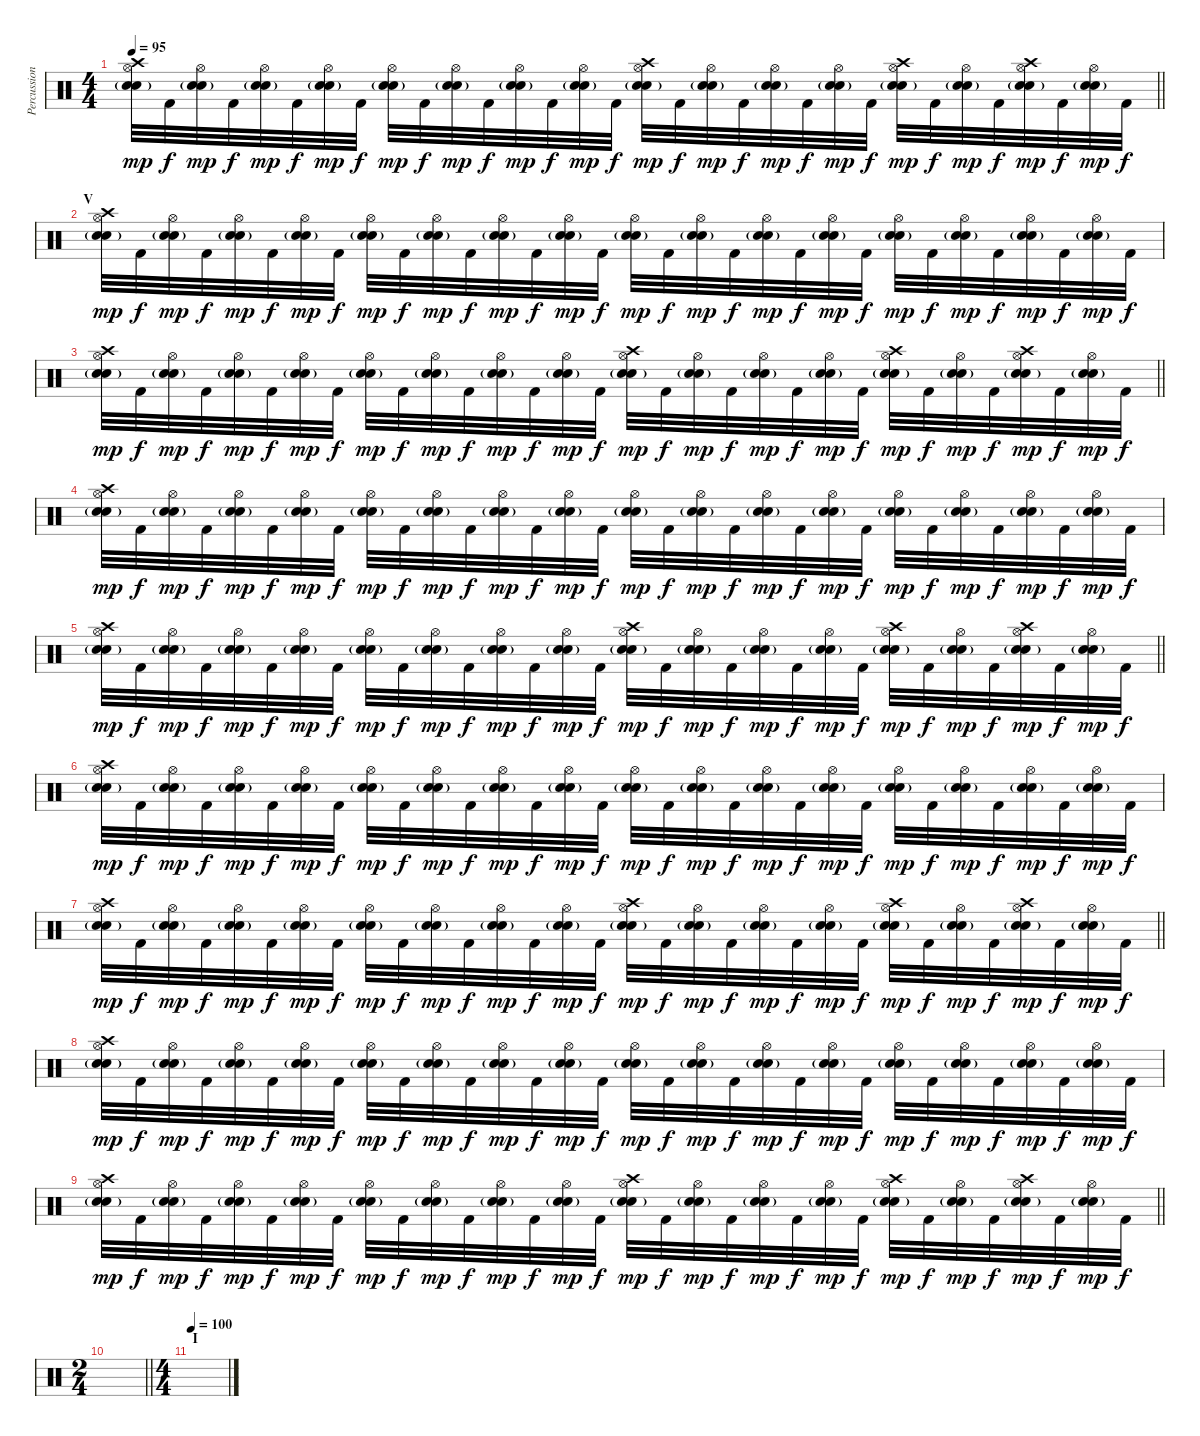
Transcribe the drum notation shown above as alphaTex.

\track ("Percussion" "Percussion") {instrument percussion}
\staff {score}
\articulation defaults
\ts (4 4)
\tempo 95
\clef neutral
\barLineRight lightlight
\ks c
("Crash high (hit)" "Electric Snare (hit)" "Snare (hit) 2"{g} "Hi-Hat (open)").32{dy mp} "Kick (hit) 2".32{dy f} ("Electric Snare (hit)" "Snare (hit) 2"{g} "Hi-Hat (open)").32{dy mp} "Kick (hit) 2".32{dy f} ("Electric Snare (hit)" "Snare (hit) 2"{g} "Hi-Hat (open)").32{dy mp} "Kick (hit) 2".32{dy f} ("Electric Snare (hit)" "Snare (hit) 2"{g} "Hi-Hat (open)").32{dy mp} "Kick (hit) 2".32{dy f} ("Electric Snare (hit)" "Snare (hit) 2"{g} "Hi-Hat (open)").32{dy mp} "Kick (hit) 2".32{dy f} ("Electric Snare (hit)" "Snare (hit) 2"{g} "Hi-Hat (open)").32{dy mp} "Kick (hit) 2".32{dy f} ("Electric Snare (hit)" "Snare (hit) 2"{g} "Hi-Hat (open)").32{dy mp} "Kick (hit) 2".32{dy f} ("Electric Snare (hit)" "Snare (hit) 2"{g} "Hi-Hat (open)").32{dy mp} "Kick (hit) 2".32{dy f} ("Crash high (hit)" "Electric Snare (hit)" "Snare (hit) 2"{g} "Hi-Hat (open)").32{dy mp} "Kick (hit) 2".32{dy f} ("Electric Snare (hit)" "Snare (hit) 2"{g} "Hi-Hat (open)").32{dy mp} "Kick (hit) 2".32{dy f} ("Electric Snare (hit)" "Snare (hit) 2"{g} "Hi-Hat (open)").32{dy mp} "Kick (hit) 2".32{dy f} ("Electric Snare (hit)" "Snare (hit) 2"{g} "Hi-Hat (open)").32{dy mp} "Kick (hit) 2".32{dy f} ("Crash high (hit)" "Electric Snare (hit)" "Snare (hit) 2"{g} "Hi-Hat (open)").32{dy mp} "Kick (hit) 2".32{dy f} ("Electric Snare (hit)" "Snare (hit) 2"{g} "Hi-Hat (open)").32{dy mp} "Kick (hit) 2".32{dy f} ("Crash high (hit)" "Electric Snare (hit)" "Snare (hit) 2"{g} "Hi-Hat (open)").32{dy mp} "Kick (hit) 2".32{dy f} ("Electric Snare (hit)" "Snare (hit) 2"{g} "Hi-Hat (open)").32{dy mp} "Kick (hit) 2".32{dy f} |
\section ("" "V")
("Crash high (hit)" "Electric Snare (hit)" "Snare (hit) 2"{g} "Hi-Hat (open)").32{dy mp} "Kick (hit) 2".32{dy f} ("Electric Snare (hit)" "Snare (hit) 2"{g} "Hi-Hat (open)").32{dy mp} "Kick (hit) 2".32{dy f} ("Electric Snare (hit)" "Snare (hit) 2"{g} "Hi-Hat (open)").32{dy mp} "Kick (hit) 2".32{dy f} ("Electric Snare (hit)" "Snare (hit) 2"{g} "Hi-Hat (open)").32{dy mp} "Kick (hit) 2".32{dy f} ("Electric Snare (hit)" "Snare (hit) 2"{g} "Hi-Hat (open)").32{dy mp} "Kick (hit) 2".32{dy f} ("Electric Snare (hit)" "Snare (hit) 2"{g} "Hi-Hat (open)").32{dy mp} "Kick (hit) 2".32{dy f} ("Electric Snare (hit)" "Snare (hit) 2"{g} "Hi-Hat (open)").32{dy mp} "Kick (hit) 2".32{dy f} ("Electric Snare (hit)" "Snare (hit) 2"{g} "Hi-Hat (open)").32{dy mp} "Kick (hit) 2".32{dy f} ("Electric Snare (hit)" "Snare (hit) 2"{g} "Hi-Hat (open)").32{dy mp} "Kick (hit) 2".32{dy f} ("Electric Snare (hit)" "Snare (hit) 2"{g} "Hi-Hat (open)").32{dy mp} "Kick (hit) 2".32{dy f} ("Electric Snare (hit)" "Snare (hit) 2"{g} "Hi-Hat (open)").32{dy mp} "Kick (hit) 2".32{dy f} ("Electric Snare (hit)" "Snare (hit) 2"{g} "Hi-Hat (open)").32{dy mp} "Kick (hit) 2".32{dy f} ("Electric Snare (hit)" "Snare (hit) 2"{g} "Hi-Hat (open)").32{dy mp} "Kick (hit) 2".32{dy f} ("Electric Snare (hit)" "Snare (hit) 2"{g} "Hi-Hat (open)").32{dy mp} "Kick (hit) 2".32{dy f} ("Electric Snare (hit)" "Snare (hit) 2"{g} "Hi-Hat (open)").32{dy mp} "Kick (hit) 2".32{dy f} ("Electric Snare (hit)" "Snare (hit) 2"{g} "Hi-Hat (open)").32{dy mp} "Kick (hit) 2".32{dy f} |
\barLineRight lightlight
("Crash high (hit)" "Electric Snare (hit)" "Snare (hit) 2"{g} "Hi-Hat (open)").32{dy mp} "Kick (hit) 2".32{dy f} ("Electric Snare (hit)" "Snare (hit) 2"{g} "Hi-Hat (open)").32{dy mp} "Kick (hit) 2".32{dy f} ("Electric Snare (hit)" "Snare (hit) 2"{g} "Hi-Hat (open)").32{dy mp} "Kick (hit) 2".32{dy f} ("Electric Snare (hit)" "Snare (hit) 2"{g} "Hi-Hat (open)").32{dy mp} "Kick (hit) 2".32{dy f} ("Electric Snare (hit)" "Snare (hit) 2"{g} "Hi-Hat (open)").32{dy mp} "Kick (hit) 2".32{dy f} ("Electric Snare (hit)" "Snare (hit) 2"{g} "Hi-Hat (open)").32{dy mp} "Kick (hit) 2".32{dy f} ("Electric Snare (hit)" "Snare (hit) 2"{g} "Hi-Hat (open)").32{dy mp} "Kick (hit) 2".32{dy f} ("Electric Snare (hit)" "Snare (hit) 2"{g} "Hi-Hat (open)").32{dy mp} "Kick (hit) 2".32{dy f} ("Crash high (hit)" "Electric Snare (hit)" "Snare (hit) 2"{g} "Hi-Hat (open)").32{dy mp} "Kick (hit) 2".32{dy f} ("Electric Snare (hit)" "Snare (hit) 2"{g} "Hi-Hat (open)").32{dy mp} "Kick (hit) 2".32{dy f} ("Electric Snare (hit)" "Snare (hit) 2"{g} "Hi-Hat (open)").32{dy mp} "Kick (hit) 2".32{dy f} ("Electric Snare (hit)" "Snare (hit) 2"{g} "Hi-Hat (open)").32{dy mp} "Kick (hit) 2".32{dy f} ("Crash high (hit)" "Electric Snare (hit)" "Snare (hit) 2"{g} "Hi-Hat (open)").32{dy mp} "Kick (hit) 2".32{dy f} ("Electric Snare (hit)" "Snare (hit) 2"{g} "Hi-Hat (open)").32{dy mp} "Kick (hit) 2".32{dy f} ("Crash high (hit)" "Electric Snare (hit)" "Snare (hit) 2"{g} "Hi-Hat (open)").32{dy mp} "Kick (hit) 2".32{dy f} ("Electric Snare (hit)" "Snare (hit) 2"{g} "Hi-Hat (open)").32{dy mp} "Kick (hit) 2".32{dy f} |
("Crash high (hit)" "Electric Snare (hit)" "Snare (hit) 2"{g} "Hi-Hat (open)").32{dy mp} "Kick (hit) 2".32{dy f} ("Electric Snare (hit)" "Snare (hit) 2"{g} "Hi-Hat (open)").32{dy mp} "Kick (hit) 2".32{dy f} ("Electric Snare (hit)" "Snare (hit) 2"{g} "Hi-Hat (open)").32{dy mp} "Kick (hit) 2".32{dy f} ("Electric Snare (hit)" "Snare (hit) 2"{g} "Hi-Hat (open)").32{dy mp} "Kick (hit) 2".32{dy f} ("Electric Snare (hit)" "Snare (hit) 2"{g} "Hi-Hat (open)").32{dy mp} "Kick (hit) 2".32{dy f} ("Electric Snare (hit)" "Snare (hit) 2"{g} "Hi-Hat (open)").32{dy mp} "Kick (hit) 2".32{dy f} ("Electric Snare (hit)" "Snare (hit) 2"{g} "Hi-Hat (open)").32{dy mp} "Kick (hit) 2".32{dy f} ("Electric Snare (hit)" "Snare (hit) 2"{g} "Hi-Hat (open)").32{dy mp} "Kick (hit) 2".32{dy f} ("Electric Snare (hit)" "Snare (hit) 2"{g} "Hi-Hat (open)").32{dy mp} "Kick (hit) 2".32{dy f} ("Electric Snare (hit)" "Snare (hit) 2"{g} "Hi-Hat (open)").32{dy mp} "Kick (hit) 2".32{dy f} ("Electric Snare (hit)" "Snare (hit) 2"{g} "Hi-Hat (open)").32{dy mp} "Kick (hit) 2".32{dy f} ("Electric Snare (hit)" "Snare (hit) 2"{g} "Hi-Hat (open)").32{dy mp} "Kick (hit) 2".32{dy f} ("Electric Snare (hit)" "Snare (hit) 2"{g} "Hi-Hat (open)").32{dy mp} "Kick (hit) 2".32{dy f} ("Electric Snare (hit)" "Snare (hit) 2"{g} "Hi-Hat (open)").32{dy mp} "Kick (hit) 2".32{dy f} ("Electric Snare (hit)" "Snare (hit) 2"{g} "Hi-Hat (open)").32{dy mp} "Kick (hit) 2".32{dy f} ("Electric Snare (hit)" "Snare (hit) 2"{g} "Hi-Hat (open)").32{dy mp} "Kick (hit) 2".32{dy f} |
\barLineRight lightlight
("Crash high (hit)" "Electric Snare (hit)" "Snare (hit) 2"{g} "Hi-Hat (open)").32{dy mp} "Kick (hit) 2".32{dy f} ("Electric Snare (hit)" "Snare (hit) 2"{g} "Hi-Hat (open)").32{dy mp} "Kick (hit) 2".32{dy f} ("Electric Snare (hit)" "Snare (hit) 2"{g} "Hi-Hat (open)").32{dy mp} "Kick (hit) 2".32{dy f} ("Electric Snare (hit)" "Snare (hit) 2"{g} "Hi-Hat (open)").32{dy mp} "Kick (hit) 2".32{dy f} ("Electric Snare (hit)" "Snare (hit) 2"{g} "Hi-Hat (open)").32{dy mp} "Kick (hit) 2".32{dy f} ("Electric Snare (hit)" "Snare (hit) 2"{g} "Hi-Hat (open)").32{dy mp} "Kick (hit) 2".32{dy f} ("Electric Snare (hit)" "Snare (hit) 2"{g} "Hi-Hat (open)").32{dy mp} "Kick (hit) 2".32{dy f} ("Electric Snare (hit)" "Snare (hit) 2"{g} "Hi-Hat (open)").32{dy mp} "Kick (hit) 2".32{dy f} ("Crash high (hit)" "Electric Snare (hit)" "Snare (hit) 2"{g} "Hi-Hat (open)").32{dy mp} "Kick (hit) 2".32{dy f} ("Electric Snare (hit)" "Snare (hit) 2"{g} "Hi-Hat (open)").32{dy mp} "Kick (hit) 2".32{dy f} ("Electric Snare (hit)" "Snare (hit) 2"{g} "Hi-Hat (open)").32{dy mp} "Kick (hit) 2".32{dy f} ("Electric Snare (hit)" "Snare (hit) 2"{g} "Hi-Hat (open)").32{dy mp} "Kick (hit) 2".32{dy f} ("Crash high (hit)" "Electric Snare (hit)" "Snare (hit) 2"{g} "Hi-Hat (open)").32{dy mp} "Kick (hit) 2".32{dy f} ("Electric Snare (hit)" "Snare (hit) 2"{g} "Hi-Hat (open)").32{dy mp} "Kick (hit) 2".32{dy f} ("Crash high (hit)" "Electric Snare (hit)" "Snare (hit) 2"{g} "Hi-Hat (open)").32{dy mp} "Kick (hit) 2".32{dy f} ("Electric Snare (hit)" "Snare (hit) 2"{g} "Hi-Hat (open)").32{dy mp} "Kick (hit) 2".32{dy f} |
("Crash high (hit)" "Electric Snare (hit)" "Snare (hit) 2"{g} "Hi-Hat (open)").32{dy mp} "Kick (hit) 2".32{dy f} ("Electric Snare (hit)" "Snare (hit) 2"{g} "Hi-Hat (open)").32{dy mp} "Kick (hit) 2".32{dy f} ("Electric Snare (hit)" "Snare (hit) 2"{g} "Hi-Hat (open)").32{dy mp} "Kick (hit) 2".32{dy f} ("Electric Snare (hit)" "Snare (hit) 2"{g} "Hi-Hat (open)").32{dy mp} "Kick (hit) 2".32{dy f} ("Electric Snare (hit)" "Snare (hit) 2"{g} "Hi-Hat (open)").32{dy mp} "Kick (hit) 2".32{dy f} ("Electric Snare (hit)" "Snare (hit) 2"{g} "Hi-Hat (open)").32{dy mp} "Kick (hit) 2".32{dy f} ("Electric Snare (hit)" "Snare (hit) 2"{g} "Hi-Hat (open)").32{dy mp} "Kick (hit) 2".32{dy f} ("Electric Snare (hit)" "Snare (hit) 2"{g} "Hi-Hat (open)").32{dy mp} "Kick (hit) 2".32{dy f} ("Electric Snare (hit)" "Snare (hit) 2"{g} "Hi-Hat (open)").32{dy mp} "Kick (hit) 2".32{dy f} ("Electric Snare (hit)" "Snare (hit) 2"{g} "Hi-Hat (open)").32{dy mp} "Kick (hit) 2".32{dy f} ("Electric Snare (hit)" "Snare (hit) 2"{g} "Hi-Hat (open)").32{dy mp} "Kick (hit) 2".32{dy f} ("Electric Snare (hit)" "Snare (hit) 2"{g} "Hi-Hat (open)").32{dy mp} "Kick (hit) 2".32{dy f} ("Electric Snare (hit)" "Snare (hit) 2"{g} "Hi-Hat (open)").32{dy mp} "Kick (hit) 2".32{dy f} ("Electric Snare (hit)" "Snare (hit) 2"{g} "Hi-Hat (open)").32{dy mp} "Kick (hit) 2".32{dy f} ("Electric Snare (hit)" "Snare (hit) 2"{g} "Hi-Hat (open)").32{dy mp} "Kick (hit) 2".32{dy f} ("Electric Snare (hit)" "Snare (hit) 2"{g} "Hi-Hat (open)").32{dy mp} "Kick (hit) 2".32{dy f} |
\barLineRight lightlight
("Crash high (hit)" "Electric Snare (hit)" "Snare (hit) 2"{g} "Hi-Hat (open)").32{dy mp} "Kick (hit) 2".32{dy f} ("Electric Snare (hit)" "Snare (hit) 2"{g} "Hi-Hat (open)").32{dy mp} "Kick (hit) 2".32{dy f} ("Electric Snare (hit)" "Snare (hit) 2"{g} "Hi-Hat (open)").32{dy mp} "Kick (hit) 2".32{dy f} ("Electric Snare (hit)" "Snare (hit) 2"{g} "Hi-Hat (open)").32{dy mp} "Kick (hit) 2".32{dy f} ("Electric Snare (hit)" "Snare (hit) 2"{g} "Hi-Hat (open)").32{dy mp} "Kick (hit) 2".32{dy f} ("Electric Snare (hit)" "Snare (hit) 2"{g} "Hi-Hat (open)").32{dy mp} "Kick (hit) 2".32{dy f} ("Electric Snare (hit)" "Snare (hit) 2"{g} "Hi-Hat (open)").32{dy mp} "Kick (hit) 2".32{dy f} ("Electric Snare (hit)" "Snare (hit) 2"{g} "Hi-Hat (open)").32{dy mp} "Kick (hit) 2".32{dy f} ("Crash high (hit)" "Electric Snare (hit)" "Snare (hit) 2"{g} "Hi-Hat (open)").32{dy mp} "Kick (hit) 2".32{dy f} ("Electric Snare (hit)" "Snare (hit) 2"{g} "Hi-Hat (open)").32{dy mp} "Kick (hit) 2".32{dy f} ("Electric Snare (hit)" "Snare (hit) 2"{g} "Hi-Hat (open)").32{dy mp} "Kick (hit) 2".32{dy f} ("Electric Snare (hit)" "Snare (hit) 2"{g} "Hi-Hat (open)").32{dy mp} "Kick (hit) 2".32{dy f} ("Crash high (hit)" "Electric Snare (hit)" "Snare (hit) 2"{g} "Hi-Hat (open)").32{dy mp} "Kick (hit) 2".32{dy f} ("Electric Snare (hit)" "Snare (hit) 2"{g} "Hi-Hat (open)").32{dy mp} "Kick (hit) 2".32{dy f} ("Crash high (hit)" "Electric Snare (hit)" "Snare (hit) 2"{g} "Hi-Hat (open)").32{dy mp} "Kick (hit) 2".32{dy f} ("Electric Snare (hit)" "Snare (hit) 2"{g} "Hi-Hat (open)").32{dy mp} "Kick (hit) 2".32{dy f} |
("Crash high (hit)" "Electric Snare (hit)" "Snare (hit) 2"{g} "Hi-Hat (open)").32{dy mp} "Kick (hit) 2".32{dy f} ("Electric Snare (hit)" "Snare (hit) 2"{g} "Hi-Hat (open)").32{dy mp} "Kick (hit) 2".32{dy f} ("Electric Snare (hit)" "Snare (hit) 2"{g} "Hi-Hat (open)").32{dy mp} "Kick (hit) 2".32{dy f} ("Electric Snare (hit)" "Snare (hit) 2"{g} "Hi-Hat (open)").32{dy mp} "Kick (hit) 2".32{dy f} ("Electric Snare (hit)" "Snare (hit) 2"{g} "Hi-Hat (open)").32{dy mp} "Kick (hit) 2".32{dy f} ("Electric Snare (hit)" "Snare (hit) 2"{g} "Hi-Hat (open)").32{dy mp} "Kick (hit) 2".32{dy f} ("Electric Snare (hit)" "Snare (hit) 2"{g} "Hi-Hat (open)").32{dy mp} "Kick (hit) 2".32{dy f} ("Electric Snare (hit)" "Snare (hit) 2"{g} "Hi-Hat (open)").32{dy mp} "Kick (hit) 2".32{dy f} ("Electric Snare (hit)" "Snare (hit) 2"{g} "Hi-Hat (open)").32{dy mp} "Kick (hit) 2".32{dy f} ("Electric Snare (hit)" "Snare (hit) 2"{g} "Hi-Hat (open)").32{dy mp} "Kick (hit) 2".32{dy f} ("Electric Snare (hit)" "Snare (hit) 2"{g} "Hi-Hat (open)").32{dy mp} "Kick (hit) 2".32{dy f} ("Electric Snare (hit)" "Snare (hit) 2"{g} "Hi-Hat (open)").32{dy mp} "Kick (hit) 2".32{dy f} ("Electric Snare (hit)" "Snare (hit) 2"{g} "Hi-Hat (open)").32{dy mp} "Kick (hit) 2".32{dy f} ("Electric Snare (hit)" "Snare (hit) 2"{g} "Hi-Hat (open)").32{dy mp} "Kick (hit) 2".32{dy f} ("Electric Snare (hit)" "Snare (hit) 2"{g} "Hi-Hat (open)").32{dy mp} "Kick (hit) 2".32{dy f} ("Electric Snare (hit)" "Snare (hit) 2"{g} "Hi-Hat (open)").32{dy mp} "Kick (hit) 2".32{dy f} |
\barLineRight lightlight
("Crash high (hit)" "Electric Snare (hit)" "Snare (hit) 2"{g} "Hi-Hat (open)").32{dy mp} "Kick (hit) 2".32{dy f} ("Electric Snare (hit)" "Snare (hit) 2"{g} "Hi-Hat (open)").32{dy mp} "Kick (hit) 2".32{dy f} ("Electric Snare (hit)" "Snare (hit) 2"{g} "Hi-Hat (open)").32{dy mp} "Kick (hit) 2".32{dy f} ("Electric Snare (hit)" "Snare (hit) 2"{g} "Hi-Hat (open)").32{dy mp} "Kick (hit) 2".32{dy f} ("Electric Snare (hit)" "Snare (hit) 2"{g} "Hi-Hat (open)").32{dy mp} "Kick (hit) 2".32{dy f} ("Electric Snare (hit)" "Snare (hit) 2"{g} "Hi-Hat (open)").32{dy mp} "Kick (hit) 2".32{dy f} ("Electric Snare (hit)" "Snare (hit) 2"{g} "Hi-Hat (open)").32{dy mp} "Kick (hit) 2".32{dy f} ("Electric Snare (hit)" "Snare (hit) 2"{g} "Hi-Hat (open)").32{dy mp} "Kick (hit) 2".32{dy f} ("Crash high (hit)" "Electric Snare (hit)" "Snare (hit) 2"{g} "Hi-Hat (open)").32{dy mp} "Kick (hit) 2".32{dy f} ("Electric Snare (hit)" "Snare (hit) 2"{g} "Hi-Hat (open)").32{dy mp} "Kick (hit) 2".32{dy f} ("Electric Snare (hit)" "Snare (hit) 2"{g} "Hi-Hat (open)").32{dy mp} "Kick (hit) 2".32{dy f} ("Electric Snare (hit)" "Snare (hit) 2"{g} "Hi-Hat (open)").32{dy mp} "Kick (hit) 2".32{dy f} ("Crash high (hit)" "Electric Snare (hit)" "Snare (hit) 2"{g} "Hi-Hat (open)").32{dy mp} "Kick (hit) 2".32{dy f} ("Electric Snare (hit)" "Snare (hit) 2"{g} "Hi-Hat (open)").32{dy mp} "Kick (hit) 2".32{dy f} ("Crash high (hit)" "Electric Snare (hit)" "Snare (hit) 2"{g} "Hi-Hat (open)").32{dy mp} "Kick (hit) 2".32{dy f} ("Electric Snare (hit)" "Snare (hit) 2"{g} "Hi-Hat (open)").32{dy mp} "Kick (hit) 2".32{dy f} |
\ts (2 4)
\barLineRight lightlight
|
\ts (4 4)
\section ("" "I")
\tempo 100
